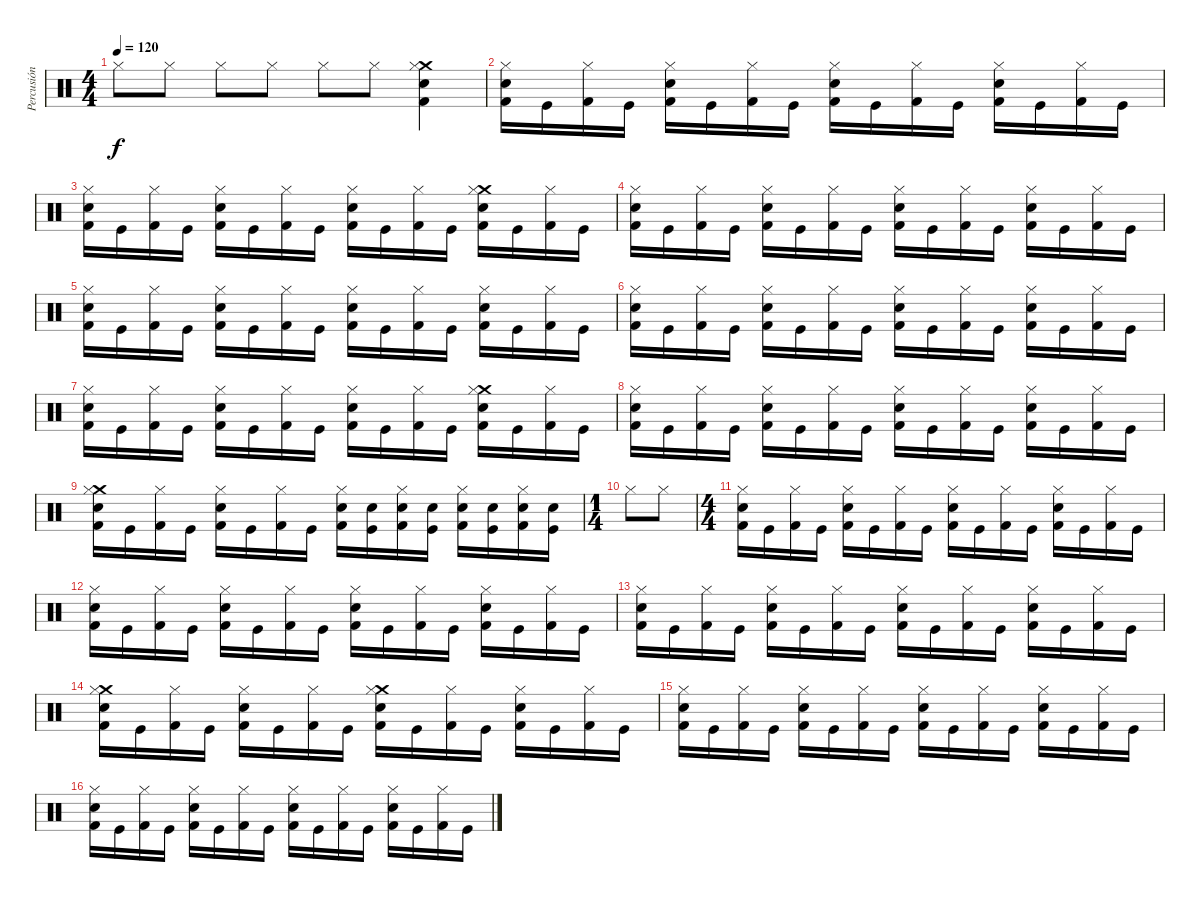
\track ("Percusión" "Percusión") {instrument percussion}
\staff {score}
\articulation defaults
\ts (4 4)
\tempo 120
\clef neutral
\ks c "Hi-Hat (closed)".8{dy f} "Hi-Hat (closed)".8 "Hi-Hat (closed)".8 "Hi-Hat (closed)".8 "Hi-Hat (closed)".8 "Hi-Hat (closed)".8
("Crash medium (hit)" "Hi-Hat (closed)" "Kick (hit) 2" "Snare (hit) 2").4 |
("Hi-Hat (closed)" "Snare (hit) 2" "Kick (hit) 2").16 "Kick (hit)".16 ("Hi-Hat (closed)" "Kick (hit) 2").16 "Kick (hit)".16 ("Hi-Hat (closed)" "Snare (hit) 2" "Kick (hit) 2").16 "Kick (hit)".16 ("Hi-Hat (closed)" "Kick (hit) 2").16 "Kick (hit)".16 ("Hi-Hat (closed)" "Snare (hit) 2" "Kick (hit) 2").16 "Kick (hit)".16 ("Hi-Hat (closed)" "Kick (hit) 2").16 "Kick (hit)".16 ("Hi-Hat (closed)" "Snare (hit) 2" "Kick (hit) 2").16 "Kick (hit)".16 ("Hi-Hat (closed)" "Kick (hit) 2").16 "Kick (hit)".16 |
("Hi-Hat (closed)" "Snare (hit) 2" "Kick (hit) 2").16 "Kick (hit)".16 ("Hi-Hat (closed)" "Kick (hit) 2").16 "Kick (hit)".16 ("Hi-Hat (closed)" "Snare (hit) 2" "Kick (hit) 2").16 "Kick (hit)".16 ("Hi-Hat (closed)" "Kick (hit) 2").16 "Kick (hit)".16 ("Hi-Hat (closed)" "Snare (hit) 2" "Kick (hit) 2").16 "Kick (hit)".16 ("Hi-Hat (closed)" "Kick (hit) 2").16 "Kick (hit)".16 ("Crash medium (hit)" "Hi-Hat (closed)" "Snare (hit) 2" "Kick (hit) 2").16 "Kick (hit)".16 ("Hi-Hat (closed)" "Kick (hit) 2").16 "Kick (hit)".16 |
("Hi-Hat (closed)" "Snare (hit) 2" "Kick (hit) 2").16 "Kick (hit)".16 ("Hi-Hat (closed)" "Kick (hit) 2").16 "Kick (hit)".16 ("Hi-Hat (closed)" "Snare (hit) 2" "Kick (hit) 2").16 "Kick (hit)".16 ("Hi-Hat (closed)" "Kick (hit) 2").16 "Kick (hit)".16 ("Hi-Hat (closed)" "Snare (hit) 2" "Kick (hit) 2").16 "Kick (hit)".16 ("Hi-Hat (closed)" "Kick (hit) 2").16 "Kick (hit)".16 ("Hi-Hat (closed)" "Snare (hit) 2" "Kick (hit) 2").16 "Kick (hit)".16 ("Hi-Hat (closed)" "Kick (hit) 2").16 "Kick (hit)".16 |
("Hi-Hat (closed)" "Snare (hit) 2" "Kick (hit) 2").16 "Kick (hit)".16 ("Hi-Hat (closed)" "Kick (hit) 2").16 "Kick (hit)".16 ("Hi-Hat (closed)" "Snare (hit) 2" "Kick (hit) 2").16 "Kick (hit)".16 ("Hi-Hat (closed)" "Kick (hit) 2").16 "Kick (hit)".16 ("Hi-Hat (closed)" "Snare (hit) 2" "Kick (hit) 2").16 "Kick (hit)".16 ("Hi-Hat (closed)" "Kick (hit) 2").16 "Kick (hit)".16 ("Hi-Hat (closed)" "Snare (hit) 2" "Kick (hit) 2").16 "Kick (hit)".16 ("Hi-Hat (closed)" "Kick (hit) 2").16 "Kick (hit)".16 |
("Hi-Hat (closed)" "Snare (hit) 2" "Kick (hit) 2").16 "Kick (hit)".16 ("Hi-Hat (closed)" "Kick (hit) 2").16 "Kick (hit)".16 ("Hi-Hat (closed)" "Snare (hit) 2" "Kick (hit) 2").16 "Kick (hit)".16 ("Hi-Hat (closed)" "Kick (hit) 2").16 "Kick (hit)".16 ("Hi-Hat (closed)" "Snare (hit) 2" "Kick (hit) 2").16 "Kick (hit)".16 ("Hi-Hat (closed)" "Kick (hit) 2").16 "Kick (hit)".16 ("Hi-Hat (closed)" "Snare (hit) 2" "Kick (hit) 2").16 "Kick (hit)".16 ("Hi-Hat (closed)" "Kick (hit) 2").16 "Kick (hit)".16 |
("Hi-Hat (closed)" "Snare (hit) 2" "Kick (hit) 2").16 "Kick (hit)".16 ("Hi-Hat (closed)" "Kick (hit) 2").16 "Kick (hit)".16 ("Hi-Hat (closed)" "Snare (hit) 2" "Kick (hit) 2").16 "Kick (hit)".16 ("Hi-Hat (closed)" "Kick (hit) 2").16 "Kick (hit)".16 ("Hi-Hat (closed)" "Snare (hit) 2" "Kick (hit) 2").16 "Kick (hit)".16 ("Hi-Hat (closed)" "Kick (hit) 2").16 "Kick (hit)".16 ("Crash medium (hit)" "Hi-Hat (closed)" "Snare (hit) 2" "Kick (hit) 2").16 "Kick (hit)".16 ("Hi-Hat (closed)" "Kick (hit) 2").16 "Kick (hit)".16 |
("Hi-Hat (closed)" "Snare (hit) 2" "Kick (hit) 2").16 "Kick (hit)".16 ("Hi-Hat (closed)" "Kick (hit) 2").16 "Kick (hit)".16 ("Hi-Hat (closed)" "Snare (hit) 2" "Kick (hit) 2").16 "Kick (hit)".16 ("Hi-Hat (closed)" "Kick (hit) 2").16 "Kick (hit)".16 ("Hi-Hat (closed)" "Snare (hit) 2" "Kick (hit) 2").16 "Kick (hit)".16 ("Hi-Hat (closed)" "Kick (hit) 2").16 "Kick (hit)".16 ("Hi-Hat (closed)" "Snare (hit) 2" "Kick (hit) 2").16 "Kick (hit)".16 ("Hi-Hat (closed)" "Kick (hit) 2").16 "Kick (hit)".16 |
("Crash medium (hit)" "Hi-Hat (closed)" "Snare (hit) 2" "Kick (hit) 2").16 "Kick (hit)".16 ("Hi-Hat (closed)" "Kick (hit) 2").16 "Kick (hit)".16 ("Hi-Hat (closed)" "Snare (hit) 2" "Kick (hit) 2").16 "Kick (hit)".16 ("Hi-Hat (closed)" "Kick (hit) 2").16 "Kick (hit)".16 ("Hi-Hat (closed)" "Snare (hit) 2" "Kick (hit) 2").16 ("Snare (hit) 2" "Kick (hit)").16 ("Hi-Hat (closed)" "Snare (hit) 2" "Kick (hit) 2").16 ("Snare (hit) 2" "Kick (hit)").16 ("Hi-Hat (closed)" "Snare (hit) 2" "Kick (hit) 2").16 ("Snare (hit) 2" "Kick (hit)").16 ("Hi-Hat (closed)" "Snare (hit) 2" "Kick (hit) 2").16 ("Snare (hit) 2" "Kick (hit)").16 |
\ts (1 4)
"Hi-Hat (closed)".8 "Hi-Hat (closed)".8 |
\ts (4 4)
("Hi-Hat (closed)" "Snare (hit) 2" "Kick (hit) 2").16 "Kick (hit)".16 ("Hi-Hat (closed)" "Kick (hit) 2").16 "Kick (hit)".16 ("Hi-Hat (closed)" "Snare (hit) 2" "Kick (hit) 2").16 "Kick (hit)".16 ("Hi-Hat (closed)" "Kick (hit) 2").16 "Kick (hit)".16 ("Hi-Hat (closed)" "Snare (hit) 2" "Kick (hit) 2").16 "Kick (hit)".16 ("Hi-Hat (closed)" "Kick (hit) 2").16 "Kick (hit)".16 ("Hi-Hat (closed)" "Snare (hit) 2" "Kick (hit) 2").16 "Kick (hit)".16 ("Hi-Hat (closed)" "Kick (hit) 2").16 "Kick (hit)".16 |
("Hi-Hat (closed)" "Snare (hit) 2" "Kick (hit) 2").16 "Kick (hit)".16 ("Hi-Hat (closed)" "Kick (hit) 2").16 "Kick (hit)".16 ("Hi-Hat (closed)" "Snare (hit) 2" "Kick (hit) 2").16 "Kick (hit)".16 ("Hi-Hat (closed)" "Kick (hit) 2").16 "Kick (hit)".16 ("Hi-Hat (closed)" "Snare (hit) 2" "Kick (hit) 2").16 "Kick (hit)".16 ("Hi-Hat (closed)" "Kick (hit) 2").16 "Kick (hit)".16 ("Hi-Hat (closed)" "Snare (hit) 2" "Kick (hit) 2").16 "Kick (hit)".16 ("Hi-Hat (closed)" "Kick (hit) 2").16 "Kick (hit)".16 |
("Hi-Hat (closed)" "Snare (hit) 2" "Kick (hit) 2").16 "Kick (hit)".16 ("Hi-Hat (closed)" "Kick (hit) 2").16 "Kick (hit)".16 ("Hi-Hat (closed)" "Snare (hit) 2" "Kick (hit) 2").16 "Kick (hit)".16 ("Hi-Hat (closed)" "Kick (hit) 2").16 "Kick (hit)".16 ("Hi-Hat (closed)" "Snare (hit) 2" "Kick (hit) 2").16 "Kick (hit)".16 ("Hi-Hat (closed)" "Kick (hit) 2").16 "Kick (hit)".16 ("Hi-Hat (closed)" "Snare (hit) 2" "Kick (hit) 2").16 "Kick (hit)".16 ("Hi-Hat (closed)" "Kick (hit) 2").16 "Kick (hit)".16 |
("Crash medium (hit)" "Hi-Hat (closed)" "Snare (hit) 2" "Kick (hit) 2").16 "Kick (hit)".16 ("Hi-Hat (closed)" "Kick (hit) 2").16 "Kick (hit)".16 ("Hi-Hat (closed)" "Snare (hit) 2" "Kick (hit) 2").16 "Kick (hit)".16 ("Hi-Hat (closed)" "Kick (hit) 2").16 "Kick (hit)".16 ("Crash medium (hit)" "Hi-Hat (closed)" "Snare (hit) 2" "Kick (hit) 2").16 "Kick (hit)".16 ("Hi-Hat (closed)" "Kick (hit) 2").16 "Kick (hit)".16 ("Hi-Hat (closed)" "Snare (hit) 2" "Kick (hit) 2").16 "Kick (hit)".16 ("Hi-Hat (closed)" "Kick (hit) 2").16 "Kick (hit)".16 |
("Hi-Hat (closed)" "Snare (hit) 2" "Kick (hit) 2").16 "Kick (hit)".16 ("Hi-Hat (closed)" "Kick (hit) 2").16 "Kick (hit)".16 ("Hi-Hat (closed)" "Snare (hit) 2" "Kick (hit) 2").16 "Kick (hit)".16 ("Hi-Hat (closed)" "Kick (hit) 2").16 "Kick (hit)".16 ("Hi-Hat (closed)" "Snare (hit) 2" "Kick (hit) 2").16 "Kick (hit)".16 ("Hi-Hat (closed)" "Kick (hit) 2").16 "Kick (hit)".16 ("Hi-Hat (closed)" "Snare (hit) 2" "Kick (hit) 2").16 "Kick (hit)".16 ("Hi-Hat (closed)" "Kick (hit) 2").16 "Kick (hit)".16 |
("Hi-Hat (closed)" "Snare (hit) 2" "Kick (hit) 2").16 "Kick (hit)".16 ("Hi-Hat (closed)" "Kick (hit) 2").16 "Kick (hit)".16 ("Hi-Hat (closed)" "Snare (hit) 2" "Kick (hit) 2").16 "Kick (hit)".16 ("Hi-Hat (closed)" "Kick (hit) 2").16 "Kick (hit)".16 ("Hi-Hat (closed)" "Snare (hit) 2" "Kick (hit) 2").16 "Kick (hit)".16 ("Hi-Hat (closed)" "Kick (hit) 2").16 "Kick (hit)".16 ("Hi-Hat (closed)" "Snare (hit) 2" "Kick (hit) 2").16 "Kick (hit)".16 ("Hi-Hat (closed)" "Kick (hit) 2").16 "Kick (hit)".16
